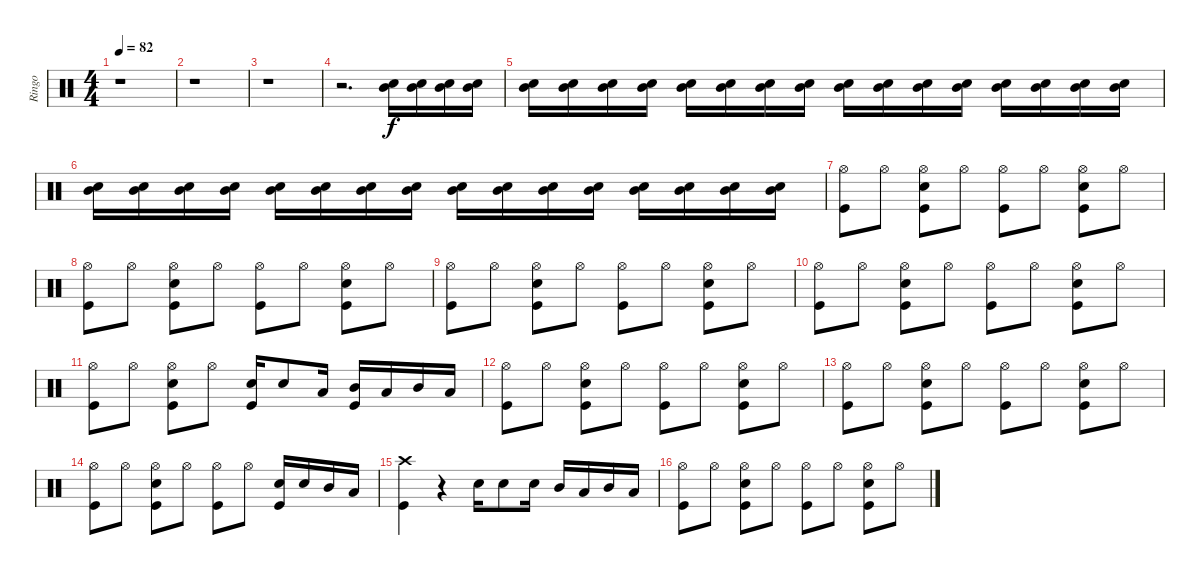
\track ("Ringo" "Ringo") {instrument percussion}
\staff {score}
\articulation defaults
\ts (4 4)
\tempo 82
\clef neutral
\ks c
r.1{dy f} |
r.1 |
r.1 |
r.2{d} ("Electric Snare (hit)" "Mid Tom (hit)").16 ("Mid Tom (hit)" "Electric Snare (hit)").16 ("Mid Tom (hit)" "Electric Snare (hit)").16 ("Mid Tom (hit)" "Electric Snare (hit)").16 |
("Electric Snare (hit)" "Mid Tom (hit)").16 ("Electric Snare (hit)" "Mid Tom (hit)").16 ("Electric Snare (hit)" "Mid Tom (hit)").16 ("Electric Snare (hit)" "Mid Tom (hit)").16 ("Electric Snare (hit)" "Mid Tom (hit)").16 ("Electric Snare (hit)" "Mid Tom (hit)").16 ("Electric Snare (hit)" "Mid Tom (hit)").16 ("Electric Snare (hit)" "Mid Tom (hit)").16 ("Electric Snare (hit)" "Mid Tom (hit)").16 ("Electric Snare (hit)" "Mid Tom (hit)").16 ("Electric Snare (hit)" "Mid Tom (hit)").16 ("Electric Snare (hit)" "Mid Tom (hit)").16 ("Electric Snare (hit)" "Mid Tom (hit)").16 ("Electric Snare (hit)" "Mid Tom (hit)").16 ("Electric Snare (hit)" "Mid Tom (hit)").16 ("Electric Snare (hit)" "Mid Tom (hit)").16 |
("Electric Snare (hit)" "Mid Tom (hit)").16 ("Electric Snare (hit)" "Mid Tom (hit)").16 ("Electric Snare (hit)" "Mid Tom (hit)").16 ("Electric Snare (hit)" "Mid Tom (hit)").16 ("Electric Snare (hit)" "Mid Tom (hit)").16 ("Electric Snare (hit)" "Mid Tom (hit)").16 ("Electric Snare (hit)" "Mid Tom (hit)").16 ("Electric Snare (hit)" "Mid Tom (hit)").16 ("Electric Snare (hit)" "Mid Tom (hit)").16 ("Electric Snare (hit)" "Mid Tom (hit)").16 ("Electric Snare (hit)" "Mid Tom (hit)").16 ("Electric Snare (hit)" "Mid Tom (hit)").16 ("Electric Snare (hit)" "Mid Tom (hit)").16 ("Electric Snare (hit)" "Mid Tom (hit)").16 ("Electric Snare (hit)" "Mid Tom (hit)").16 ("Electric Snare (hit)" "Mid Tom (hit)").16 |
("Hi-Hat (open)" "Kick (hit)").8 "Hi-Hat (open)".8 ("Electric Snare (hit)" "Hi-Hat (open)" "Kick (hit)").8 "Hi-Hat (open)".8 ("Hi-Hat (open)" "Kick (hit)").8 "Hi-Hat (open)".8 ("Hi-Hat (open)" "Electric Snare (hit)" "Kick (hit)").8 "Hi-Hat (open)".8 |
("Hi-Hat (open)" "Kick (hit)").8 "Hi-Hat (open)".8 ("Electric Snare (hit)" "Hi-Hat (open)" "Kick (hit)").8 "Hi-Hat (open)".8 ("Hi-Hat (open)" "Kick (hit)").8 "Hi-Hat (open)".8 ("Hi-Hat (open)" "Electric Snare (hit)" "Kick (hit)").8 "Hi-Hat (open)".8 |
("Hi-Hat (open)" "Kick (hit)").8 "Hi-Hat (open)".8 ("Electric Snare (hit)" "Hi-Hat (open)" "Kick (hit)").8 "Hi-Hat (open)".8 ("Hi-Hat (open)" "Kick (hit)").8 "Hi-Hat (open)".8 ("Hi-Hat (open)" "Electric Snare (hit)" "Kick (hit)").8 "Hi-Hat (open)".8 |
("Hi-Hat (open)" "Kick (hit)").8 "Hi-Hat (open)".8 ("Electric Snare (hit)" "Hi-Hat (open)" "Kick (hit)").8 "Hi-Hat (open)".8 ("Hi-Hat (open)" "Kick (hit)").8 "Hi-Hat (open)".8 ("Hi-Hat (open)" "Electric Snare (hit)" "Kick (hit)").8 "Hi-Hat (open)".8 |
("Hi-Hat (open)" "Kick (hit)").8 "Hi-Hat (open)".8 ("Electric Snare (hit)" "Hi-Hat (open)" "Kick (hit)").8 "Hi-Hat (open)".8 ("Kick (hit)" "Electric Snare (hit)").16 "Electric Snare (hit)".8 "Low Floor Tom (hit)".16 ("Mid Tom (hit)" "Kick (hit)").16 "Low Floor Tom (hit)".16 "Mid Tom (hit)".16 "Low Floor Tom (hit)".16 |
("Hi-Hat (open)" "Kick (hit)").8 "Hi-Hat (open)".8 ("Electric Snare (hit)" "Hi-Hat (open)" "Kick (hit)").8 "Hi-Hat (open)".8 ("Hi-Hat (open)" "Kick (hit)").8 "Hi-Hat (open)".8 ("Hi-Hat (open)" "Electric Snare (hit)" "Kick (hit)").8 "Hi-Hat (open)".8 |
("Hi-Hat (open)" "Kick (hit)").8 "Hi-Hat (open)".8 ("Electric Snare (hit)" "Hi-Hat (open)" "Kick (hit)").8 "Hi-Hat (open)".8 ("Hi-Hat (open)" "Kick (hit)").8 "Hi-Hat (open)".8 ("Hi-Hat (open)" "Electric Snare (hit)" "Kick (hit)").8 "Hi-Hat (open)".8 |
("Hi-Hat (open)" "Kick (hit)").8 "Hi-Hat (open)".8 ("Electric Snare (hit)" "Hi-Hat (open)" "Kick (hit)").8 "Hi-Hat (open)".8 ("Hi-Hat (open)" "Kick (hit)").8 "Hi-Hat (open)".8 ("Kick (hit)" "Electric Snare (hit)").16 "Electric Snare (hit)".16 "Mid Tom (hit)".16 "Low Floor Tom (hit)".16 |
("Crash high (hit)" "Kick (hit)").4 r.4 "Electric Snare (hit)".16 "Electric Snare (hit)".8 "Electric Snare (hit)".16 "Mid Tom (hit)".16 "Low Floor Tom (hit)".16 "Mid Tom (hit)".16 "Low Floor Tom (hit)".16 |
("Hi-Hat (open)" "Kick (hit)").8 "Hi-Hat (open)".8 ("Electric Snare (hit)" "Hi-Hat (open)" "Kick (hit)").8 "Hi-Hat (open)".8 ("Hi-Hat (open)" "Kick (hit)").8 "Hi-Hat (open)".8 ("Hi-Hat (open)" "Electric Snare (hit)" "Kick (hit)").8 "Hi-Hat (open)".8
